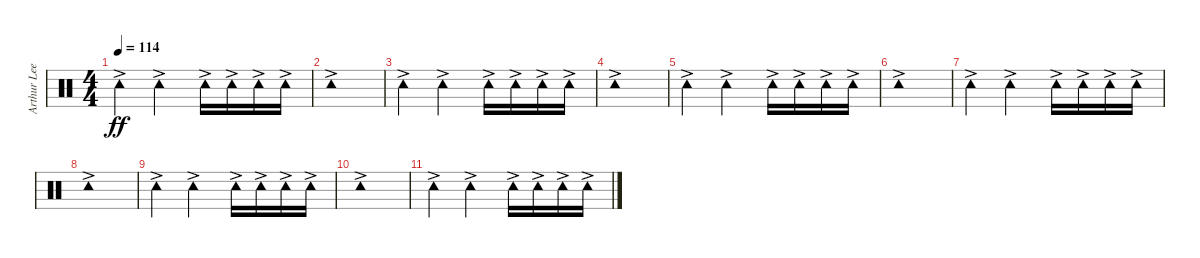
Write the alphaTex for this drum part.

\track ("Arthur Lee" "Arthur Lee") {instrument percussion}
\staff {score}
\articulation defaults
\ts (4 4)
\tempo 114
\clef neutral
\ks c "Tambourine (hit)"{ac}.4{dy ff} "Tambourine (hit)"{ac}.2 "Tambourine (hit)"{ac}.16 "Tambourine (hit)"{ac}.16 "Tambourine (hit)"{ac}.16 "Tambourine (hit)"{ac}.16
|
"Tambourine (hit)"{ac}.1 |
"Tambourine (hit)"{ac}.4 "Tambourine (hit)"{ac}.2 "Tambourine (hit)"{ac}.16 "Tambourine (hit)"{ac}.16 "Tambourine (hit)"{ac}.16 "Tambourine (hit)"{ac}.16 |
"Tambourine (hit)"{ac}.1 |
"Tambourine (hit)"{ac}.4 "Tambourine (hit)"{ac}.2 "Tambourine (hit)"{ac}.16 "Tambourine (hit)"{ac}.16 "Tambourine (hit)"{ac}.16 "Tambourine (hit)"{ac}.16 |
"Tambourine (hit)"{ac}.1 |
"Tambourine (hit)"{ac}.4 "Tambourine (hit)"{ac}.2 "Tambourine (hit)"{ac}.16 "Tambourine (hit)"{ac}.16 "Tambourine (hit)"{ac}.16 "Tambourine (hit)"{ac}.16 |
"Tambourine (hit)"{ac}.1 |
"Tambourine (hit)"{ac}.4 "Tambourine (hit)"{ac}.2 "Tambourine (hit)"{ac}.16 "Tambourine (hit)"{ac}.16 "Tambourine (hit)"{ac}.16 "Tambourine (hit)"{ac}.16 |
"Tambourine (hit)"{ac}.1 |
"Tambourine (hit)"{ac}.4 "Tambourine (hit)"{ac}.2 "Tambourine (hit)"{ac}.16 "Tambourine (hit)"{ac}.16 "Tambourine (hit)"{ac}.16 "Tambourine (hit)"{ac}.16
